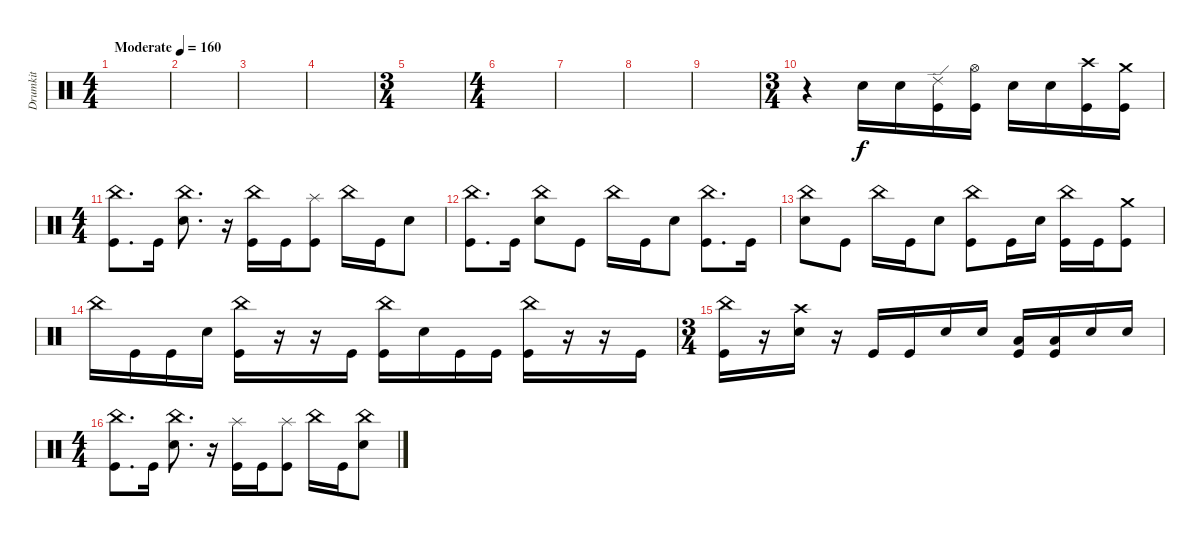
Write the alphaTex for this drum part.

\track ("Drumkit" "Drumkit") {instrument percussion}
\staff {score}
\articulation defaults
\ts (4 4)
\tempo (160 "Moderate")
\clef neutral
\ks c
|
|
|
|
\ts (3 4)
|
\ts (4 4)
|
|
|
|
\ts (3 4)
r.4 "Snare (hit) 2".16 "Snare (hit) 2".16 ("Kick (hit)" "Ride (edge) 2").16 ("Kick (hit)" "Hi-Hat (open)").16 "Snare (hit) 2".16 "Snare (hit) 2".16 ("Kick (hit)" "Crash high (hit)").16 ("Kick (hit)" "Crash medium (hit)").16 |
\ts (4 4)
("Kick (hit)" "China (hit)").8{d} "Kick (hit)".16 ("Snare (hit) 2" "China (hit)").8{d} r.16 ("Kick (hit)" "China (hit)").16 "Kick (hit)".16 ("Kick (hit)" "Splash (hit)").8 "China (hit)".16 "Kick (hit)".16 "Snare (hit) 2".8 |
("Kick (hit)" "China (hit)").8{d} "Kick (hit)".16 ("Snare (hit) 2" "China (hit)").8 "Kick (hit)".8 "China (hit)".16 "Kick (hit)".16 "Snare (hit) 2".8 ("Kick (hit)" "China (hit)").8{d} "Kick (hit)".16 |
("Snare (hit) 2" "China (hit)").8 "Kick (hit)".8 "China (hit)".16 "Kick (hit)".16 "Snare (hit) 2".8 ("Kick (hit)" "China (hit)").8 "Kick (hit)".16 "Snare (hit) 2".16 ("Kick (hit)" "China (hit)").16 "Kick (hit)".16 ("Kick (hit)" "Crash medium (hit)").8 |
"China (hit)".16 "Kick (hit)".16 "Kick (hit)".16 "Snare (hit) 2".16 ("China (hit)" "Kick (hit)").16 r.16 r.16 "Kick (hit)".16 ("China (hit)" "Kick (hit)").16 "Snare (hit) 2".16 "Kick (hit)".16 "Kick (hit)".16 ("China (hit)" "Kick (hit)").16 r.16 r.16 "Kick (hit)".16 |
\ts (3 4)
("China (hit)" "Kick (hit)").16 r.16 ("Snare (hit) 2" "Crash high (hit)").16 r.16 "Kick (hit)".16 "Kick (hit)".16 "Snare (hit) 2".16 "Snare (hit) 2".16 ("Low Tom (hit)" "Kick (hit)").16 ("Low Tom (hit)" "Kick (hit)").16 "Snare (hit) 2".16 "Snare (hit) 2".16 |
\ts (4 4)
("Kick (hit)" "China (hit)").8{d} "Kick (hit)".16 ("Snare (hit) 2" "China (hit)").8{d} r.16 ("Kick (hit)" "Splash (hit)").16 "Kick (hit)".16 ("Kick (hit)" "Splash (hit)").8 "China (hit)".16 "Kick (hit)".16 ("Snare (hit) 2" "China (hit)").8
